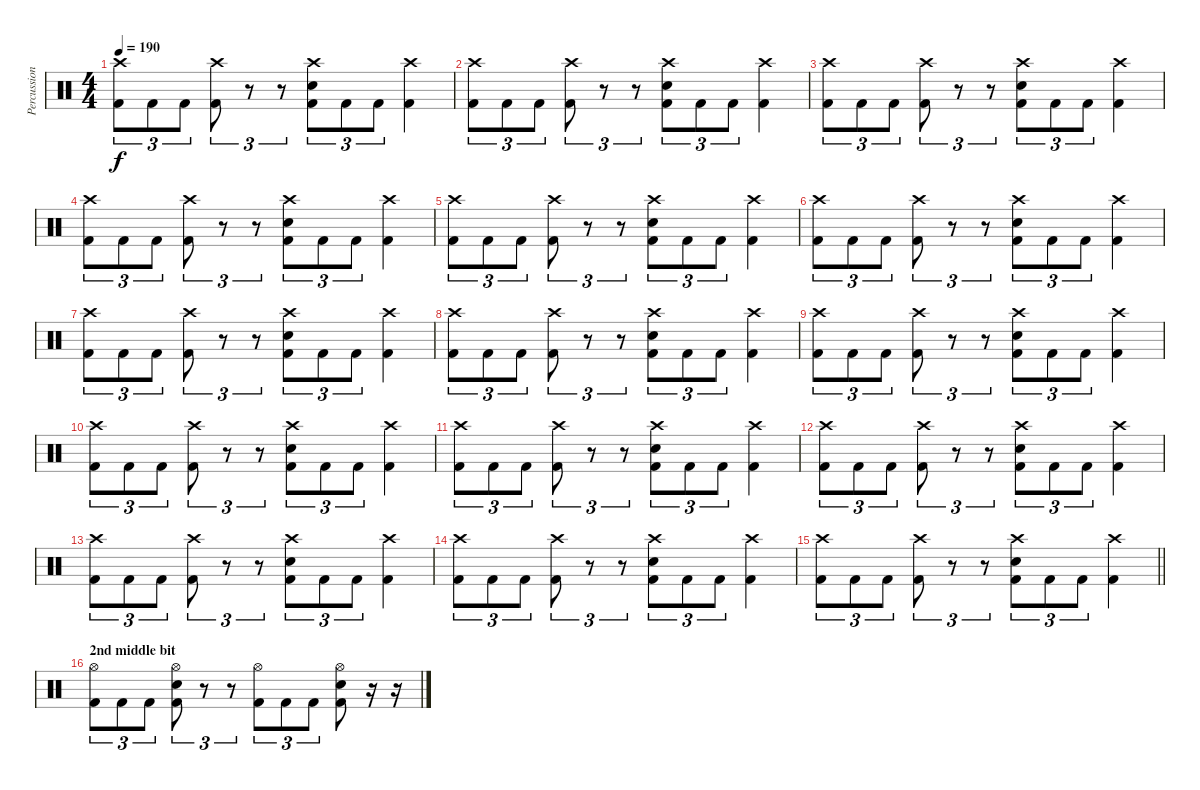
\track ("Percussion" "Percussion") {instrument percussion}
\staff {score}
\articulation defaults
\ts (4 4)
\tempo 190
\clef neutral
\ks c
("Crash high (hit)" "Kick (hit) 2").8{tu (3 2) dy f} "Kick (hit) 2".8{tu (3 2)} "Kick (hit) 2".8{tu (3 2)} ("Crash high (hit)" "Kick (hit) 2").8{tu (3 2)} r.8{tu (3 2)} r.8{tu (3 2)} ("Crash high (hit)" "Electric Snare (hit)" "Kick (hit) 2").8{tu (3 2)} "Kick (hit) 2".8{tu (3 2)} "Kick (hit) 2".8{tu (3 2)} ("Crash high (hit)" "Kick (hit) 2").4 |
("Crash high (hit)" "Kick (hit) 2").8{tu (3 2)} "Kick (hit) 2".8{tu (3 2)} "Kick (hit) 2".8{tu (3 2)} ("Crash high (hit)" "Kick (hit) 2").8{tu (3 2)} r.8{tu (3 2)} r.8{tu (3 2)} ("Crash high (hit)" "Electric Snare (hit)" "Kick (hit) 2").8{tu (3 2)} "Kick (hit) 2".8{tu (3 2)} "Kick (hit) 2".8{tu (3 2)} ("Crash high (hit)" "Kick (hit) 2").4 |
("Crash high (hit)" "Kick (hit) 2").8{tu (3 2)} "Kick (hit) 2".8{tu (3 2)} "Kick (hit) 2".8{tu (3 2)} ("Crash high (hit)" "Kick (hit) 2").8{tu (3 2)} r.8{tu (3 2)} r.8{tu (3 2)} ("Crash high (hit)" "Electric Snare (hit)" "Kick (hit) 2").8{tu (3 2)} "Kick (hit) 2".8{tu (3 2)} "Kick (hit) 2".8{tu (3 2)} ("Crash high (hit)" "Kick (hit) 2").4 |
("Crash high (hit)" "Kick (hit) 2").8{tu (3 2)} "Kick (hit) 2".8{tu (3 2)} "Kick (hit) 2".8{tu (3 2)} ("Crash high (hit)" "Kick (hit) 2").8{tu (3 2)} r.8{tu (3 2)} r.8{tu (3 2)} ("Crash high (hit)" "Electric Snare (hit)" "Kick (hit) 2").8{tu (3 2)} "Kick (hit) 2".8{tu (3 2)} "Kick (hit) 2".8{tu (3 2)} ("Crash high (hit)" "Kick (hit) 2").4 |
("Crash high (hit)" "Kick (hit) 2").8{tu (3 2)} "Kick (hit) 2".8{tu (3 2)} "Kick (hit) 2".8{tu (3 2)} ("Crash high (hit)" "Kick (hit) 2").8{tu (3 2)} r.8{tu (3 2)} r.8{tu (3 2)} ("Crash high (hit)" "Electric Snare (hit)" "Kick (hit) 2").8{tu (3 2)} "Kick (hit) 2".8{tu (3 2)} "Kick (hit) 2".8{tu (3 2)} ("Crash high (hit)" "Kick (hit) 2").4 |
("Crash high (hit)" "Kick (hit) 2").8{tu (3 2)} "Kick (hit) 2".8{tu (3 2)} "Kick (hit) 2".8{tu (3 2)} ("Crash high (hit)" "Kick (hit) 2").8{tu (3 2)} r.8{tu (3 2)} r.8{tu (3 2)} ("Crash high (hit)" "Electric Snare (hit)" "Kick (hit) 2").8{tu (3 2)} "Kick (hit) 2".8{tu (3 2)} "Kick (hit) 2".8{tu (3 2)} ("Crash high (hit)" "Kick (hit) 2").4 |
("Crash high (hit)" "Kick (hit) 2").8{tu (3 2)} "Kick (hit) 2".8{tu (3 2)} "Kick (hit) 2".8{tu (3 2)} ("Crash high (hit)" "Kick (hit) 2").8{tu (3 2)} r.8{tu (3 2)} r.8{tu (3 2)} ("Crash high (hit)" "Electric Snare (hit)" "Kick (hit) 2").8{tu (3 2)} "Kick (hit) 2".8{tu (3 2)} "Kick (hit) 2".8{tu (3 2)} ("Crash high (hit)" "Kick (hit) 2").4 |
("Crash high (hit)" "Kick (hit) 2").8{tu (3 2)} "Kick (hit) 2".8{tu (3 2)} "Kick (hit) 2".8{tu (3 2)} ("Crash high (hit)" "Kick (hit) 2").8{tu (3 2)} r.8{tu (3 2)} r.8{tu (3 2)} ("Crash high (hit)" "Electric Snare (hit)" "Kick (hit) 2").8{tu (3 2)} "Kick (hit) 2".8{tu (3 2)} "Kick (hit) 2".8{tu (3 2)} ("Crash high (hit)" "Kick (hit) 2").4 |
("Crash high (hit)" "Kick (hit) 2").8{tu (3 2)} "Kick (hit) 2".8{tu (3 2)} "Kick (hit) 2".8{tu (3 2)} ("Crash high (hit)" "Kick (hit) 2").8{tu (3 2)} r.8{tu (3 2)} r.8{tu (3 2)} ("Crash high (hit)" "Electric Snare (hit)" "Kick (hit) 2").8{tu (3 2)} "Kick (hit) 2".8{tu (3 2)} "Kick (hit) 2".8{tu (3 2)} ("Crash high (hit)" "Kick (hit) 2").4 |
("Crash high (hit)" "Kick (hit) 2").8{tu (3 2)} "Kick (hit) 2".8{tu (3 2)} "Kick (hit) 2".8{tu (3 2)} ("Crash high (hit)" "Kick (hit) 2").8{tu (3 2)} r.8{tu (3 2)} r.8{tu (3 2)} ("Crash high (hit)" "Electric Snare (hit)" "Kick (hit) 2").8{tu (3 2)} "Kick (hit) 2".8{tu (3 2)} "Kick (hit) 2".8{tu (3 2)} ("Crash high (hit)" "Kick (hit) 2").4 |
("Crash high (hit)" "Kick (hit) 2").8{tu (3 2)} "Kick (hit) 2".8{tu (3 2)} "Kick (hit) 2".8{tu (3 2)} ("Crash high (hit)" "Kick (hit) 2").8{tu (3 2)} r.8{tu (3 2)} r.8{tu (3 2)} ("Crash high (hit)" "Electric Snare (hit)" "Kick (hit) 2").8{tu (3 2)} "Kick (hit) 2".8{tu (3 2)} "Kick (hit) 2".8{tu (3 2)} ("Crash high (hit)" "Kick (hit) 2").4 |
("Crash high (hit)" "Kick (hit) 2").8{tu (3 2)} "Kick (hit) 2".8{tu (3 2)} "Kick (hit) 2".8{tu (3 2)} ("Crash high (hit)" "Kick (hit) 2").8{tu (3 2)} r.8{tu (3 2)} r.8{tu (3 2)} ("Crash high (hit)" "Electric Snare (hit)" "Kick (hit) 2").8{tu (3 2)} "Kick (hit) 2".8{tu (3 2)} "Kick (hit) 2".8{tu (3 2)} ("Crash high (hit)" "Kick (hit) 2").4 |
("Crash high (hit)" "Kick (hit) 2").8{tu (3 2)} "Kick (hit) 2".8{tu (3 2)} "Kick (hit) 2".8{tu (3 2)} ("Crash high (hit)" "Kick (hit) 2").8{tu (3 2)} r.8{tu (3 2)} r.8{tu (3 2)} ("Crash high (hit)" "Electric Snare (hit)" "Kick (hit) 2").8{tu (3 2)} "Kick (hit) 2".8{tu (3 2)} "Kick (hit) 2".8{tu (3 2)} ("Crash high (hit)" "Kick (hit) 2").4 |
("Crash high (hit)" "Kick (hit) 2").8{tu (3 2)} "Kick (hit) 2".8{tu (3 2)} "Kick (hit) 2".8{tu (3 2)} ("Crash high (hit)" "Kick (hit) 2").8{tu (3 2)} r.8{tu (3 2)} r.8{tu (3 2)} ("Crash high (hit)" "Electric Snare (hit)" "Kick (hit) 2").8{tu (3 2)} "Kick (hit) 2".8{tu (3 2)} "Kick (hit) 2".8{tu (3 2)} ("Crash high (hit)" "Kick (hit) 2").4 |
\barLineRight lightlight
("Crash high (hit)" "Kick (hit) 2").8{tu (3 2)} "Kick (hit) 2".8{tu (3 2)} "Kick (hit) 2".8{tu (3 2)} ("Crash high (hit)" "Kick (hit) 2").8{tu (3 2)} r.8{tu (3 2)} r.8{tu (3 2)} ("Crash high (hit)" "Electric Snare (hit)" "Kick (hit) 2").8{tu (3 2)} "Kick (hit) 2".8{tu (3 2)} "Kick (hit) 2".8{tu (3 2)} ("Crash high (hit)" "Kick (hit) 2").4 |
\section ("" "2nd middle bit")
("Hi-Hat (open)" "Kick (hit) 2").8{tu (3 2)} "Kick (hit) 2".8{tu (3 2)} "Kick (hit) 2".8{tu (3 2)} ("Hi-Hat (open)" "Electric Snare (hit)" "Kick (hit) 2").8{tu (3 2)} r.8{tu (3 2)} r.8{tu (3 2)} ("Hi-Hat (open)" "Kick (hit) 2").8{tu (3 2)} "Kick (hit) 2".8{tu (3 2)} "Kick (hit) 2".8{tu (3 2)} ("Hi-Hat (open)" "Electric Snare (hit)" "Kick (hit) 2").8 r.16 r.16
